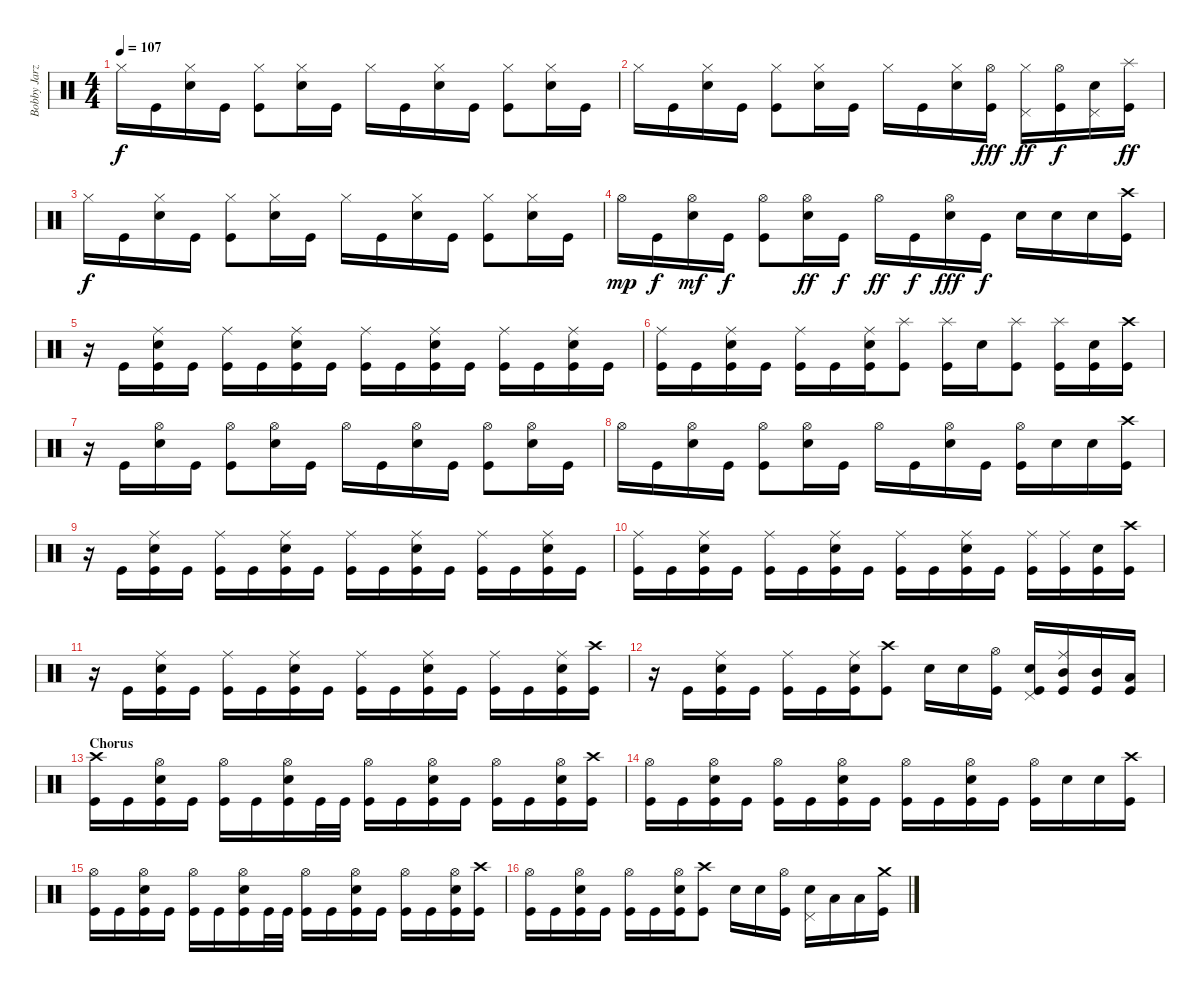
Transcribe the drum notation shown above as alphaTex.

\track ("Bobby Jarzombek" "Bobby Jarz") {instrument percussion}
\staff {score}
\articulation defaults
\ts (4 4)
\tempo 107
\clef neutral
\ks c "Hi-Hat (closed)".16{dy f} "Kick (hit)".16
("Hi-Hat (closed)" "Electric Snare (hit)").16 "Kick (hit)".16 ("Hi-Hat (closed)" "Kick (hit)").8 ("Hi-Hat (closed)" "Electric Snare (hit)").16 "Kick (hit)".16 "Hi-Hat (closed)".16 "Kick (hit)".16 ("Hi-Hat (closed)" "Electric Snare (hit)").16 "Kick (hit)".16 ("Hi-Hat (closed)" "Kick (hit)").8 ("Hi-Hat (closed)" "Electric Snare (hit)").16 "Kick (hit)".16 |
"Hi-Hat (closed)".16 "Kick (hit)".16 ("Hi-Hat (closed)" "Electric Snare (hit)").16 "Kick (hit)".16 ("Hi-Hat (closed)" "Kick (hit)").8 ("Hi-Hat (closed)" "Electric Snare (hit)").16 "Kick (hit)".16 "Hi-Hat (closed)".16 "Kick (hit)".16 ("Hi-Hat (closed)" "Electric Snare (hit)").16 ("Hi-Hat (open)" "Kick (hit)").16{dy fff} ("Hi-Hat (closed)" "Pedal Hi-Hat (hit)").16{dy ff} ("Hi-Hat (open)" "Kick (hit)").16{dy f} ("Pedal Hi-Hat (hit)" "Electric Snare (hit)").16 ("Splash (hit)" "Kick (hit)").16{dy ff} |
"Hi-Hat (closed)".16{dy f} "Kick (hit)".16 ("Hi-Hat (closed)" "Electric Snare (hit)").16 "Kick (hit)".16 ("Hi-Hat (closed)" "Kick (hit)").8 ("Hi-Hat (closed)" "Electric Snare (hit)").16 "Kick (hit)".16 "Hi-Hat (closed)".16 "Kick (hit)".16 ("Hi-Hat (closed)" "Electric Snare (hit)").16 "Kick (hit)".16 ("Hi-Hat (closed)" "Kick (hit)").8 ("Hi-Hat (closed)" "Electric Snare (hit)").16 "Kick (hit)".16 |
"Hi-Hat (open)".16{dy mp} "Kick (hit)".16{dy f} ("Hi-Hat (open)" "Electric Snare (hit)").16{dy mf} "Kick (hit)".16{dy f} ("Hi-Hat (open)" "Kick (hit)").8 ("Hi-Hat (open)" "Electric Snare (hit)").16{dy ff} "Kick (hit)".16{dy f} "Hi-Hat (open)".16{dy ff} "Kick (hit)".16{dy f} ("Hi-Hat (open)" "Electric Snare (hit)").16{dy fff} "Kick (hit)".16{dy f} "Electric Snare (hit)".16 "Electric Snare (hit)".16 "Electric Snare (hit)".16 ("Crash high (hit)" "Kick (hit)").16 |
r.16 "Kick (hit)".16 ("Ride (middle)" "Electric Snare (hit)" "Kick (hit)").16 "Kick (hit)".16 ("Ride (middle)" "Kick (hit)").16 "Kick (hit)".16 ("Ride (middle)" "Electric Snare (hit)" "Kick (hit)").16 "Kick (hit)".16 ("Ride (middle)" "Kick (hit)").16 "Kick (hit)".16 ("Ride (middle)" "Electric Snare (hit)" "Kick (hit)").16 "Kick (hit)".16 ("Ride (middle)" "Kick (hit)").16 "Kick (hit)".16 ("Ride (middle)" "Electric Snare (hit)" "Kick (hit)").16 "Kick (hit)".16 |
("Ride (middle)" "Kick (hit)").16 "Kick (hit)".16 ("Ride (middle)" "Electric Snare (hit)" "Kick (hit)").16 "Kick (hit)".16 ("Ride (middle)" "Kick (hit)").16 "Kick (hit)".16 ("Ride (middle)" "Electric Snare (hit)" "Kick (hit)").16 ("Splash (hit)" "Kick (hit)").8 ("Splash (hit)" "Kick (hit)").16 "Electric Snare (hit)".16 ("Splash (hit)" "Kick (hit)").8 ("Splash (hit)" "Kick (hit)").16 ("Electric Snare (hit)" "Kick (hit)").16 ("Crash high (hit)" "Kick (hit)").16 |
r.16 "Kick (hit)".16 ("Hi-Hat (open)" "Electric Snare (hit)").16 "Kick (hit)".16 ("Hi-Hat (open)" "Kick (hit)").8 ("Hi-Hat (open)" "Electric Snare (hit)").16 "Kick (hit)".16 "Hi-Hat (open)".16 "Kick (hit)".16 ("Hi-Hat (open)" "Electric Snare (hit)").16 "Kick (hit)".16 ("Hi-Hat (open)" "Kick (hit)").8 ("Hi-Hat (open)" "Electric Snare (hit)").16 "Kick (hit)".16 |
"Hi-Hat (open)".16 "Kick (hit)".16 ("Hi-Hat (open)" "Electric Snare (hit)").16 "Kick (hit)".16 ("Hi-Hat (open)" "Kick (hit)").8 ("Hi-Hat (open)" "Electric Snare (hit)").16 "Kick (hit)".16 "Hi-Hat (open)".16 "Kick (hit)".16 ("Hi-Hat (open)" "Electric Snare (hit)").16 "Kick (hit)".16 ("Hi-Hat (open)" "Kick (hit)").16 "Electric Snare (hit)".16 "Electric Snare (hit)".16 ("Crash high (hit)" "Kick (hit)").16 |
r.16 "Kick (hit)".16 ("Ride (middle)" "Electric Snare (hit)" "Kick (hit)").16 "Kick (hit)".16 ("Ride (middle)" "Kick (hit)").16 "Kick (hit)".16 ("Ride (middle)" "Electric Snare (hit)" "Kick (hit)").16 "Kick (hit)".16 ("Ride (middle)" "Kick (hit)").16 "Kick (hit)".16 ("Ride (middle)" "Electric Snare (hit)" "Kick (hit)").16 "Kick (hit)".16 ("Ride (middle)" "Kick (hit)").16 "Kick (hit)".16 ("Ride (middle)" "Electric Snare (hit)" "Kick (hit)").16 "Kick (hit)".16 |
("Ride (middle)" "Kick (hit)").16 "Kick (hit)".16 ("Ride (middle)" "Electric Snare (hit)" "Kick (hit)").16 "Kick (hit)".16 ("Ride (middle)" "Kick (hit)").16 "Kick (hit)".16 ("Ride (middle)" "Electric Snare (hit)" "Kick (hit)").16 "Kick (hit)".16 ("Ride (middle)" "Kick (hit)").16 "Kick (hit)".16 ("Ride (middle)" "Electric Snare (hit)" "Kick (hit)").16 "Kick (hit)".16 ("Ride (middle)" "Kick (hit)").16 ("Ride (middle)" "Kick (hit)").16 ("Electric Snare (hit)" "Kick (hit)").16 ("Crash high (hit)" "Kick (hit)").16 |
r.16 "Kick (hit)".16 ("Ride (middle)" "Electric Snare (hit)" "Kick (hit)").16 "Kick (hit)".16 ("Ride (middle)" "Kick (hit)").16 "Kick (hit)".16 ("Ride (middle)" "Electric Snare (hit)" "Kick (hit)").16 "Kick (hit)".16 ("Ride (middle)" "Kick (hit)").16 "Kick (hit)".16 ("Ride (middle)" "Electric Snare (hit)" "Kick (hit)").16 "Kick (hit)".16 ("Ride (middle)" "Kick (hit)").16 "Kick (hit)".16 ("Ride (middle)" "Electric Snare (hit)" "Kick (hit)").16 ("Crash high (hit)" "Kick (hit)").16 |
r.16 "Kick (hit)".16 ("Ride (middle)" "Electric Snare (hit)" "Kick (hit)").16 "Kick (hit)".16 ("Ride (middle)" "Kick (hit)").16 "Kick (hit)".16 ("Ride (middle)" "Electric Snare (hit)" "Kick (hit)").16 ("Crash high (hit)" "Kick (hit)").8 "Electric Snare (hit)".16 "Electric Snare (hit)".16 ("Hi-Hat (open)" "Kick (hit)").16 ("Electric Snare (hit)" "Pedal Hi-Hat (hit)" "Kick (hit)").16 ("Ride (middle)" "Mid Tom (hit)" "Kick (hit)").16 ("Mid Tom (hit)" "Kick (hit)").16 ("Low Tom (hit)" "Kick (hit)").16 |
\section ("" "Chorus")
("Crash high (hit)" "Kick (hit)").16 "Kick (hit)".16 ("Hi-Hat (open)" "Electric Snare (hit)" "Kick (hit)").16 "Kick (hit)".16 ("Hi-Hat (open)" "Kick (hit)").16 "Kick (hit)".16 ("Hi-Hat (open)" "Electric Snare (hit)" "Kick (hit)").16 "Kick (hit)".32 "Kick (hit)".32 ("Hi-Hat (open)" "Kick (hit)").16 "Kick (hit)".16 ("Hi-Hat (open)" "Electric Snare (hit)" "Kick (hit)").16 "Kick (hit)".16 ("Hi-Hat (open)" "Kick (hit)").16 "Kick (hit)".16 ("Hi-Hat (open)" "Electric Snare (hit)" "Kick (hit)").16 ("Crash high (hit)" "Kick (hit)").16 |
("Hi-Hat (open)" "Kick (hit)").16 "Kick (hit)".16 ("Hi-Hat (open)" "Electric Snare (hit)" "Kick (hit)").16 "Kick (hit)".16 ("Hi-Hat (open)" "Kick (hit)").16 "Kick (hit)".16 ("Hi-Hat (open)" "Electric Snare (hit)" "Kick (hit)").16 "Kick (hit)".16 ("Hi-Hat (open)" "Kick (hit)").16 "Kick (hit)".16 ("Hi-Hat (open)" "Electric Snare (hit)" "Kick (hit)").16 "Kick (hit)".16 ("Hi-Hat (open)" "Kick (hit)").16 "Electric Snare (hit)".16 "Electric Snare (hit)".16 ("Crash high (hit)" "Kick (hit)").16 |
("Hi-Hat (open)" "Kick (hit)").16 "Kick (hit)".16 ("Hi-Hat (open)" "Electric Snare (hit)" "Kick (hit)").16 "Kick (hit)".16 ("Hi-Hat (open)" "Kick (hit)").16 "Kick (hit)".16 ("Hi-Hat (open)" "Electric Snare (hit)" "Kick (hit)").16 "Kick (hit)".32 "Kick (hit)".32 ("Hi-Hat (open)" "Kick (hit)").16 "Kick (hit)".16 ("Hi-Hat (open)" "Electric Snare (hit)" "Kick (hit)").16 "Kick (hit)".16 ("Hi-Hat (open)" "Kick (hit)").16 "Kick (hit)".16 ("Hi-Hat (open)" "Electric Snare (hit)" "Kick (hit)").16 ("Crash high (hit)" "Kick (hit)").16 |
("Hi-Hat (open)" "Kick (hit)").16 "Kick (hit)".16 ("Hi-Hat (open)" "Electric Snare (hit)" "Kick (hit)").16 "Kick (hit)".16 ("Hi-Hat (open)" "Kick (hit)").16 "Kick (hit)".16 ("Hi-Hat (open)" "Electric Snare (hit)" "Kick (hit)").16 ("Crash high (hit)" "Kick (hit)").8 "Electric Snare (hit)".16 "Electric Snare (hit)".16 ("Hi-Hat (open)" "Kick (hit)").16 ("Electric Snare (hit)" "Pedal Hi-Hat (hit)").16 "Low Tom (hit)".16 "Low Tom (hit)".16 ("Crash medium (hit)" "Kick (hit)").16
